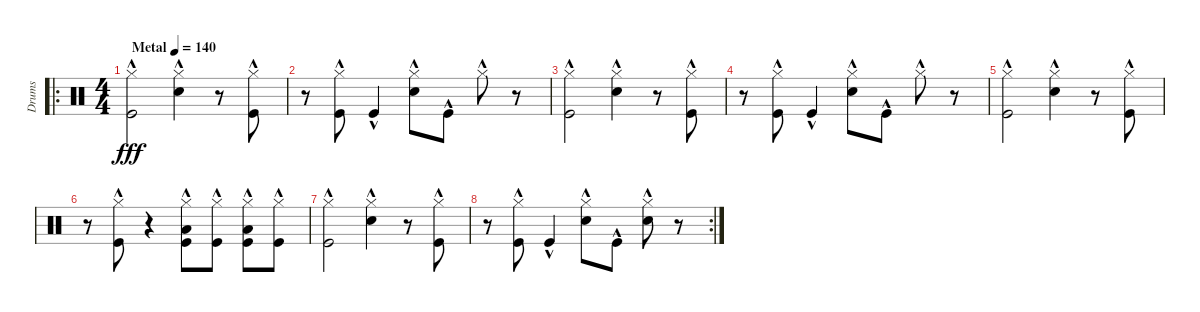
\track ("Drums" "Drums") {instrument percussion}
\staff {score}
\articulation defaults
\ro
\ts (4 4)
\tempo (140 "Metal")
\clef neutral
\ks c
("Hi-Hat (closed)"{hac} "Kick (hit)"{hac}).2{dy fff} ("Hi-Hat (closed)"{hac} "Electric Snare (hit)"{hac}).4 r.8 ("Hi-Hat (closed)"{hac} "Kick (hit)"{hac}).8 |
r.8 ("Hi-Hat (closed)"{hac} "Kick (hit)"{hac}).8 "Kick (hit)"{hac}.4 ("Hi-Hat (closed)"{hac} "Electric Snare (hit)"{hac}).8 "Kick (hit)"{hac}.8 "Hi-Hat (closed)"{hac}.8 r.8 |
("Hi-Hat (closed)"{hac} "Kick (hit)"{hac}).2 ("Hi-Hat (closed)"{hac} "Electric Snare (hit)"{hac}).4 r.8 ("Hi-Hat (closed)"{hac} "Kick (hit)"{hac}).8 |
r.8 ("Hi-Hat (closed)"{hac} "Kick (hit)"{hac}).8 "Kick (hit)"{hac}.4 ("Hi-Hat (closed)"{hac} "Electric Snare (hit)"{hac}).8 "Kick (hit)"{hac}.8 "Hi-Hat (closed)"{hac}.8 r.8 |
("Hi-Hat (closed)"{hac} "Kick (hit)"{hac}).2 ("Hi-Hat (closed)"{hac} "Electric Snare (hit)"{hac}).4 r.8 ("Hi-Hat (closed)"{hac} "Kick (hit)"{hac}).8 |
r.8 ("Hi-Hat (closed)"{hac} "Kick (hit)"{hac}).8 r.4 ("Low Floor Tom (hit)"{hac} "Hi-Hat (closed)"{hac} "Kick (hit)"{hac}).8 ("Hi-Hat (closed)"{hac} "Kick (hit)"{hac}).8 ("Low Floor Tom (hit)"{hac} "Hi-Hat (closed)"{hac} "Kick (hit)"{hac}).8 ("Hi-Hat (closed)"{hac} "Kick (hit)"{hac}).8 |
("Hi-Hat (closed)"{hac} "Kick (hit)"{hac}).2 ("Hi-Hat (closed)"{hac} "Electric Snare (hit)"{hac}).4 r.8 ("Hi-Hat (closed)"{hac} "Kick (hit)"{hac}).8 |
\rc 2
r.8 ("Hi-Hat (closed)"{hac} "Kick (hit)"{hac}).8 "Kick (hit)"{hac}.4 ("Hi-Hat (closed)"{hac} "Electric Snare (hit)"{hac}).8 "Kick (hit)"{hac}.8 ("Hi-Hat (closed)"{hac} "Electric Snare (hit)"{hac}).8 r.8
